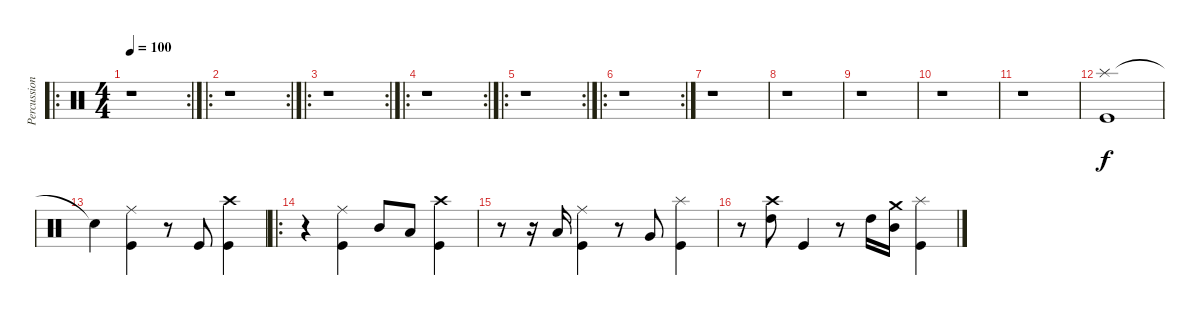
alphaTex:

\track ("Percussions" "Percussion") {instrument percussion}
\staff {score}
\articulation defaults
\ro
\rc 2
\ts (4 4)
\tempo 100
\clef neutral
\ks c
r.1{dy f} |
\ro
\rc 2
r.1 |
\ro
\rc 2
r.1 |
\ro
\rc 2
r.1 |
\ro
\rc 2
r.1 |
\ro
\rc 2
r.1 |
r.1 |
r.1 |
r.1 |
r.1 |
r.1 |
("Splash (hit)" "Kick (hit)").1 |
"Snare (hit)"{t}.4 ("Ride (middle)" "Kick (hit)").4 r.8 "Kick (hit)".8 ("Crash high (hit)" "Kick (hit)").4 |
\ro
r.4 ("Ride (middle)" "Kick (hit)").4 "Mid Tom (hit)".8 "Low Tom (hit)".8 ("Crash high (hit)" "Kick (hit)").4 |
r.8 r.16 "Low Tom (hit)".16 ("Ride (middle)" "Kick (hit)").4 r.8 "Very Low Tom (hit)".8 ("Splash (hit)" "Kick (hit)").4 |
r.8 ("Crash high (hit)" "High Tom (hit)").8 "Kick (hit)".4 r.8 "High Tom (hit)".16 ("Crash medium (hit)" "Mid Tom (hit)").16 ("Splash (hit)" "Kick (hit)").4
